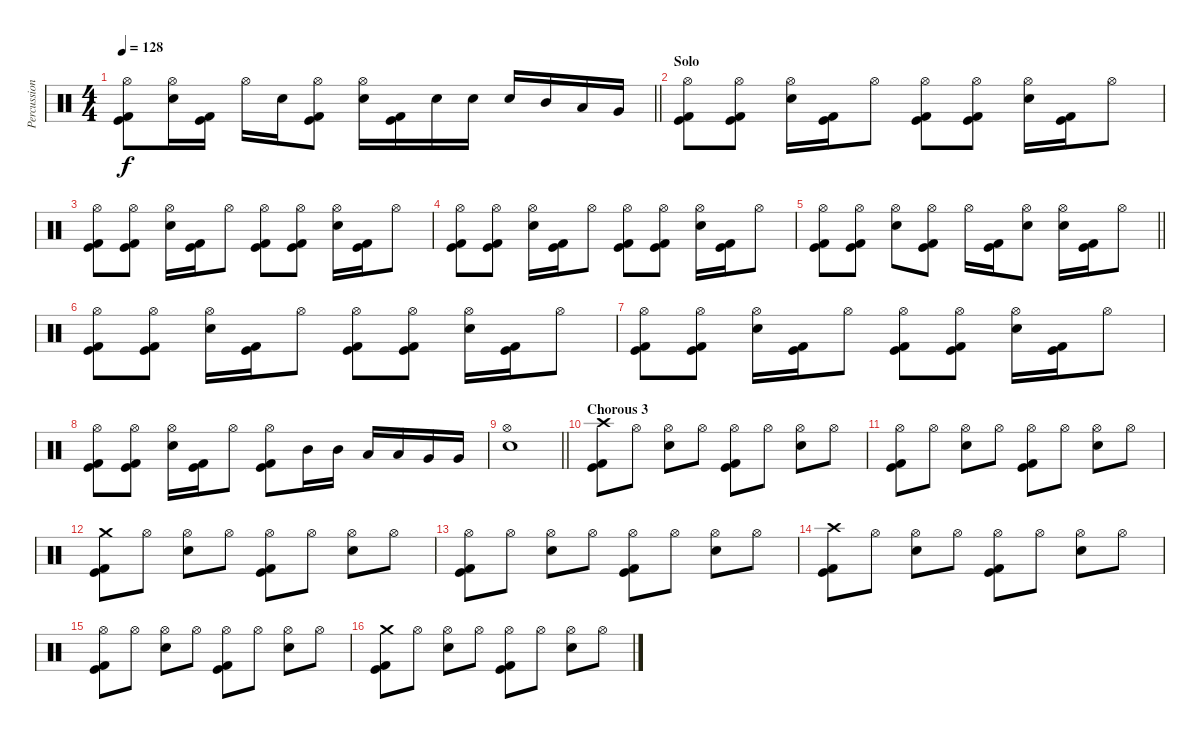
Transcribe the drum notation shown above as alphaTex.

\track ("Percussion" "Percussion") {instrument percussion}
\staff {score}
\articulation defaults
\ts (4 4)
\tempo 128
\clef neutral
\barLineRight lightlight
\ks c
("Hi-Hat (open)" "Kick (hit)" "Kick (hit) 2").8{dy f} ("Hi-Hat (open)" "Electric Snare (hit)").16 ("Kick (hit)" "Kick (hit) 2").16 "Hi-Hat (open)".16 "Electric Snare (hit)".16 ("Hi-Hat (open)" "Kick (hit)" "Kick (hit) 2").8 ("Hi-Hat (open)" "Electric Snare (hit)").16 ("Kick (hit)" "Kick (hit) 2").16 "Electric Snare (hit)".16 "Electric Snare (hit)".16 "Electric Snare (hit)".16 "Mid Tom (hit)".16 "Low Tom (hit)".16 "Very Low Tom (hit)".16 |
\section ("" "Solo")
("Hi-Hat (open)" "Kick (hit)" "Kick (hit) 2").8 ("Hi-Hat (open)" "Kick (hit)" "Kick (hit) 2").8 ("Hi-Hat (open)" "Electric Snare (hit)").16 ("Kick (hit)" "Kick (hit) 2").16 "Hi-Hat (open)".8 ("Hi-Hat (open)" "Kick (hit)" "Kick (hit) 2").8 ("Hi-Hat (open)" "Kick (hit)" "Kick (hit) 2").8 ("Hi-Hat (open)" "Electric Snare (hit)").16 ("Kick (hit)" "Kick (hit) 2").16 "Hi-Hat (open)".8 |
("Hi-Hat (open)" "Kick (hit)" "Kick (hit) 2").8 ("Hi-Hat (open)" "Kick (hit)" "Kick (hit) 2").8 ("Hi-Hat (open)" "Electric Snare (hit)").16 ("Kick (hit)" "Kick (hit) 2").16 "Hi-Hat (open)".8 ("Hi-Hat (open)" "Kick (hit)" "Kick (hit) 2").8 ("Hi-Hat (open)" "Kick (hit)" "Kick (hit) 2").8 ("Hi-Hat (open)" "Electric Snare (hit)").16 ("Kick (hit)" "Kick (hit) 2").16 "Hi-Hat (open)".8 |
("Hi-Hat (open)" "Kick (hit)" "Kick (hit) 2").8 ("Hi-Hat (open)" "Kick (hit)" "Kick (hit) 2").8 ("Hi-Hat (open)" "Electric Snare (hit)").16 ("Kick (hit)" "Kick (hit) 2").16 "Hi-Hat (open)".8 ("Hi-Hat (open)" "Kick (hit)" "Kick (hit) 2").8 ("Hi-Hat (open)" "Kick (hit)" "Kick (hit) 2").8 ("Hi-Hat (open)" "Electric Snare (hit)").16 ("Kick (hit)" "Kick (hit) 2").16 "Hi-Hat (open)".8 |
\barLineRight lightlight
("Hi-Hat (open)" "Kick (hit)" "Kick (hit) 2").8 ("Hi-Hat (open)" "Kick (hit)" "Kick (hit) 2").8 ("Hi-Hat (open)" "Electric Snare (hit)").8 ("Hi-Hat (open)" "Kick (hit)" "Kick (hit) 2").8 "Hi-Hat (open)".16 ("Kick (hit)" "Kick (hit) 2").16 ("Hi-Hat (open)" "Electric Snare (hit)").8 ("Hi-Hat (open)" "Electric Snare (hit)").16 ("Kick (hit)" "Kick (hit) 2").16 "Hi-Hat (open)".8 |
("Hi-Hat (open)" "Kick (hit)" "Kick (hit) 2").8 ("Hi-Hat (open)" "Kick (hit)" "Kick (hit) 2").8 ("Hi-Hat (open)" "Electric Snare (hit)").16 ("Kick (hit)" "Kick (hit) 2").16 "Hi-Hat (open)".8 ("Hi-Hat (open)" "Kick (hit)" "Kick (hit) 2").8 ("Hi-Hat (open)" "Kick (hit)" "Kick (hit) 2").8 ("Hi-Hat (open)" "Electric Snare (hit)").16 ("Kick (hit)" "Kick (hit) 2").16 "Hi-Hat (open)".8 |
("Hi-Hat (open)" "Kick (hit)" "Kick (hit) 2").8 ("Hi-Hat (open)" "Kick (hit)" "Kick (hit) 2").8 ("Hi-Hat (open)" "Electric Snare (hit)").16 ("Kick (hit)" "Kick (hit) 2").16 "Hi-Hat (open)".8 ("Hi-Hat (open)" "Kick (hit)" "Kick (hit) 2").8 ("Hi-Hat (open)" "Kick (hit)" "Kick (hit) 2").8 ("Hi-Hat (open)" "Electric Snare (hit)").16 ("Kick (hit)" "Kick (hit) 2").16 "Hi-Hat (open)".8 |
("Hi-Hat (open)" "Kick (hit)" "Kick (hit) 2").8 ("Hi-Hat (open)" "Kick (hit)" "Kick (hit) 2").8 ("Hi-Hat (open)" "Electric Snare (hit)").16 ("Kick (hit)" "Kick (hit) 2").16 "Hi-Hat (open)".8 ("Hi-Hat (open)" "Kick (hit)" "Kick (hit) 2").8 "Mid Tom (hit)".16 "Mid Tom (hit)".16 "Low Tom (hit)".16 "Low Tom (hit)".16 "Very Low Tom (hit)".16 "Very Low Tom (hit)".16 |
\barLineRight lightlight
("Hi-Hat (open)" "Electric Snare (hit)").1 |
\section ("" "Chorous 3")
("Crash high (hit)" "Kick (hit)" "Kick (hit) 2").8 "Hi-Hat (open)".8 ("Hi-Hat (open)" "Electric Snare (hit)").8 "Hi-Hat (open)".8 ("Hi-Hat (open)" "Kick (hit)" "Kick (hit) 2").8 "Hi-Hat (open)".8 ("Hi-Hat (open)" "Electric Snare (hit)").8 "Hi-Hat (open)".8 |
("Hi-Hat (open)" "Kick (hit)" "Kick (hit) 2").8 "Hi-Hat (open)".8 ("Hi-Hat (open)" "Electric Snare (hit)").8 "Hi-Hat (open)".8 ("Hi-Hat (open)" "Kick (hit)" "Kick (hit) 2").8 "Hi-Hat (open)".8 ("Hi-Hat (open)" "Electric Snare (hit)").8 "Hi-Hat (open)".8 |
("Crash medium (hit)" "Kick (hit)" "Kick (hit) 2").8 "Hi-Hat (open)".8 ("Hi-Hat (open)" "Electric Snare (hit)").8 "Hi-Hat (open)".8 ("Hi-Hat (open)" "Kick (hit)" "Kick (hit) 2").8 "Hi-Hat (open)".8 ("Hi-Hat (open)" "Electric Snare (hit)").8 "Hi-Hat (open)".8 |
("Hi-Hat (open)" "Kick (hit)" "Kick (hit) 2").8 "Hi-Hat (open)".8 ("Hi-Hat (open)" "Electric Snare (hit)").8 "Hi-Hat (open)".8 ("Hi-Hat (open)" "Kick (hit)" "Kick (hit) 2").8 "Hi-Hat (open)".8 ("Hi-Hat (open)" "Electric Snare (hit)").8 "Hi-Hat (open)".8 |
("Crash high (hit)" "Kick (hit)" "Kick (hit) 2").8 "Hi-Hat (open)".8 ("Hi-Hat (open)" "Electric Snare (hit)").8 "Hi-Hat (open)".8 ("Hi-Hat (open)" "Kick (hit)" "Kick (hit) 2").8 "Hi-Hat (open)".8 ("Hi-Hat (open)" "Electric Snare (hit)").8 "Hi-Hat (open)".8 |
("Hi-Hat (open)" "Kick (hit)" "Kick (hit) 2").8 "Hi-Hat (open)".8 ("Hi-Hat (open)" "Electric Snare (hit)").8 "Hi-Hat (open)".8 ("Hi-Hat (open)" "Kick (hit)" "Kick (hit) 2").8 "Hi-Hat (open)".8 ("Hi-Hat (open)" "Electric Snare (hit)").8 "Hi-Hat (open)".8 |
("Crash medium (hit)" "Kick (hit)" "Kick (hit) 2").8 "Hi-Hat (open)".8 ("Hi-Hat (open)" "Electric Snare (hit)").8 "Hi-Hat (open)".8 ("Hi-Hat (open)" "Kick (hit)" "Kick (hit) 2").8 "Hi-Hat (open)".8 ("Hi-Hat (open)" "Electric Snare (hit)").8 "Hi-Hat (open)".8
